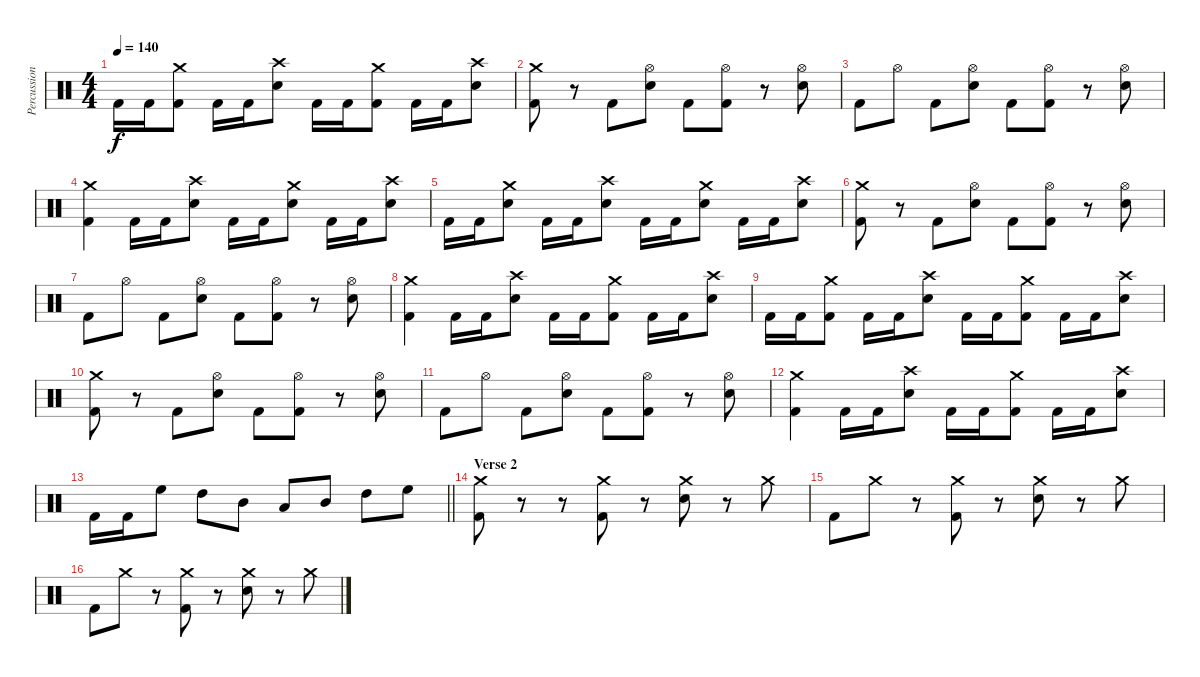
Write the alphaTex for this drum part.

\track ("Percussion" "Percussion") {instrument percussion}
\staff {score}
\articulation defaults
\ts (4 4)
\tempo 140
\clef neutral
\ks c "Kick (hit) 2".16{dy f} "Kick (hit) 2".16
("Crash medium (hit)" "Kick (hit) 2").8 "Kick (hit) 2".16 "Kick (hit) 2".16 ("Crash high (hit)" "Electric Snare (hit)").8 "Kick (hit) 2".16 "Kick (hit) 2".16 ("Crash medium (hit)" "Kick (hit) 2").8 "Kick (hit) 2".16 "Kick (hit) 2".16 ("Crash high (hit)" "Electric Snare (hit)").8 |
("Crash medium (hit)" "Kick (hit) 2").8 r.8 "Kick (hit) 2".8 ("Hi-Hat (open)" "Electric Snare (hit)").8 "Kick (hit) 2".8 ("Hi-Hat (open)" "Kick (hit) 2").8 r.8 ("Hi-Hat (open)" "Electric Snare (hit)").8 |
"Kick (hit) 2".8 "Hi-Hat (open)".8 "Kick (hit) 2".8 ("Hi-Hat (open)" "Electric Snare (hit)").8 "Kick (hit) 2".8 ("Hi-Hat (open)" "Kick (hit) 2").8 r.8 ("Hi-Hat (open)" "Electric Snare (hit)").8 |
("Crash medium (hit)" "Kick (hit) 2").4 "Kick (hit) 2".16 "Kick (hit) 2".16 ("Crash high (hit)" "Electric Snare (hit)").8 "Kick (hit) 2".16 "Kick (hit) 2".16 ("Crash medium (hit)" "Electric Snare (hit)").8 "Kick (hit) 2".16 "Kick (hit) 2".16 ("Crash high (hit)" "Electric Snare (hit)").8 |
"Kick (hit) 2".16 "Kick (hit) 2".16 ("Crash medium (hit)" "Electric Snare (hit)").8 "Kick (hit) 2".16 "Kick (hit) 2".16 ("Crash high (hit)" "Electric Snare (hit)").8 "Kick (hit) 2".16 "Kick (hit) 2".16 ("Crash medium (hit)" "Electric Snare (hit)").8 "Kick (hit) 2".16 "Kick (hit) 2".16 ("Crash high (hit)" "Electric Snare (hit)").8 |
("Crash medium (hit)" "Kick (hit) 2").8 r.8 "Kick (hit) 2".8 ("Hi-Hat (open)" "Electric Snare (hit)").8 "Kick (hit) 2".8 ("Hi-Hat (open)" "Kick (hit) 2").8 r.8 ("Hi-Hat (open)" "Electric Snare (hit)").8 |
"Kick (hit) 2".8 "Hi-Hat (open)".8 "Kick (hit) 2".8 ("Hi-Hat (open)" "Electric Snare (hit)").8 "Kick (hit) 2".8 ("Hi-Hat (open)" "Kick (hit) 2").8 r.8 ("Hi-Hat (open)" "Electric Snare (hit)").8 |
("Crash medium (hit)" "Kick (hit) 2").4 "Kick (hit) 2".16 "Kick (hit) 2".16 ("Crash high (hit)" "Electric Snare (hit)").8 "Kick (hit) 2".16 "Kick (hit) 2".16 ("Crash medium (hit)" "Kick (hit) 2").8 "Kick (hit) 2".16 "Kick (hit) 2".16 ("Crash high (hit)" "Electric Snare (hit)").8 |
"Kick (hit) 2".16 "Kick (hit) 2".16 ("Crash medium (hit)" "Kick (hit) 2").8 "Kick (hit) 2".16 "Kick (hit) 2".16 ("Crash high (hit)" "Electric Snare (hit)").8 "Kick (hit) 2".16 "Kick (hit) 2".16 ("Crash medium (hit)" "Kick (hit) 2").8 "Kick (hit) 2".16 "Kick (hit) 2".16 ("Crash high (hit)" "Electric Snare (hit)").8 |
("Crash medium (hit)" "Kick (hit) 2").8 r.8 "Kick (hit) 2".8 ("Hi-Hat (open)" "Electric Snare (hit)").8 "Kick (hit) 2".8 ("Hi-Hat (open)" "Kick (hit) 2").8 r.8 ("Hi-Hat (open)" "Electric Snare (hit)").8 |
"Kick (hit) 2".8 "Hi-Hat (open)".8 "Kick (hit) 2".8 ("Hi-Hat (open)" "Electric Snare (hit)").8 "Kick (hit) 2".8 ("Hi-Hat (open)" "Kick (hit) 2").8 r.8 ("Hi-Hat (open)" "Electric Snare (hit)").8 |
("Crash medium (hit)" "Kick (hit) 2").4 "Kick (hit) 2".16 "Kick (hit) 2".16 ("Crash high (hit)" "Electric Snare (hit)").8 "Kick (hit) 2".16 "Kick (hit) 2".16 ("Crash medium (hit)" "Kick (hit) 2").8 "Kick (hit) 2".16 "Kick (hit) 2".16 ("Crash high (hit)" "Electric Snare (hit)").8 |
\barLineRight lightlight "Kick (hit) 2".16 "Kick (hit) 2".16 "High Floor Tom (hit)".8 "High Tom (hit)".8 "Mid Tom (hit)".8 "Low Tom (hit)".8 "Mid Tom (hit)".8 "High Tom (hit)".8 "High Floor Tom (hit)".8
|
\section ("" "Verse 2")
("Crash medium (hit)" "Kick (hit) 2").8{volume 16} r.8 r.8 ("Crash medium (hit)" "Kick (hit) 2").8 r.8 ("Crash medium (hit)" "Electric Snare (hit)").8 r.8 "Crash medium (hit)".8 |
"Kick (hit) 2".8 "Crash medium (hit)".8 r.8 ("Crash medium (hit)" "Kick (hit) 2").8 r.8 ("Crash medium (hit)" "Electric Snare (hit)").8 r.8 "Crash medium (hit)".8 |
"Kick (hit) 2".8 "Crash medium (hit)".8 r.8 ("Crash medium (hit)" "Kick (hit) 2").8 r.8 ("Crash medium (hit)" "Electric Snare (hit)").8 r.8 "Crash medium (hit)".8
